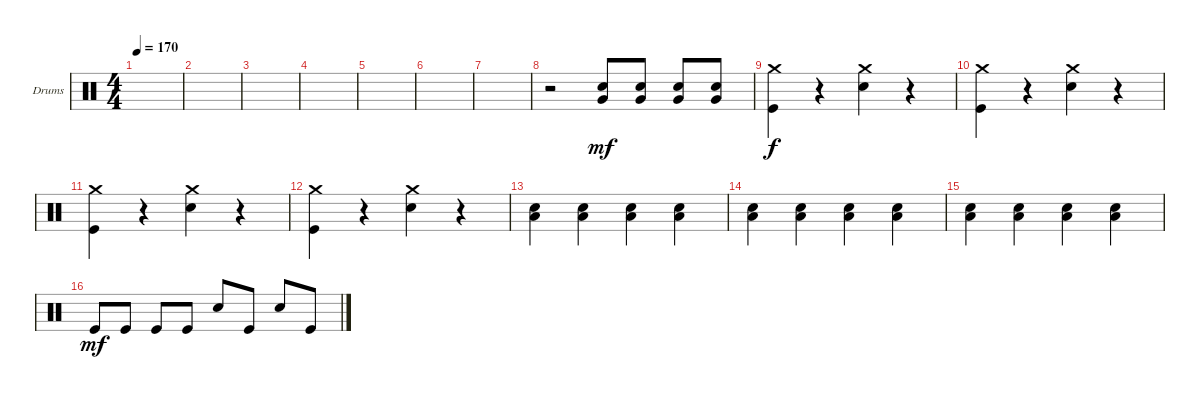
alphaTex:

\defaultSystemsLayout 4
\bracketExtendMode groupsimilarinstruments
\firstSystemTrackNameOrientation horizontal
\otherSystemsTrackNameOrientation horizontal
\track ("Drumkit" "Drums") {instrument percussion}
\staff {score}
\articulation defaults
\ts (4 4)
\tempo 170
\clef neutral
\scale
0.333333
\ks c
|
\scale
0.333333 |
\scale
0.333333 |
\scale
0.333333 |
\scale
0.333333 |
\scale
0.333333 |
\scale
0.333333 |
\scale
0.333333 r.2 ("Snare (hit) 2" "Very Low Tom (hit)").8{dy mf} ("Snare (hit) 2" "Very Low Tom (hit)").8 ("Snare (hit) 2" "Very Low Tom (hit)").8 ("Snare (hit) 2" "Very Low Tom (hit)").8 |
\scale
0.333333 ("Crash medium (hit)" "Kick (hit)").4{dy f} r.4 ("Crash medium (hit)" "Snare (hit) 2").4 r.4 |
\scale
0.333333 ("Crash medium (hit)" "Kick (hit)").4 r.4 ("Crash medium (hit)" "Snare (hit) 2").4 r.4 |
\scale
0.333333 ("Crash medium (hit)" "Kick (hit)").4 r.4 ("Crash medium (hit)" "Snare (hit) 2").4 r.4 |
\scale
0.333333 ("Crash medium (hit)" "Kick (hit)").4 r.4 ("Crash medium (hit)" "Snare (hit) 2").4 r.4 |
\scale
0.333333 ("Snare (hit) 2" "Low Tom (hit)").4 ("Snare (hit) 2" "Low Tom (hit)").4 ("Snare (hit) 2" "Low Tom (hit)").4 ("Snare (hit) 2" "Low Tom (hit)").4 |
\scale
0.333333 ("Snare (hit) 2" "Low Tom (hit)").4 ("Snare (hit) 2" "Low Tom (hit)").4 ("Snare (hit) 2" "Low Tom (hit)").4 ("Snare (hit) 2" "Low Tom (hit)").4 |
\scale
0.333333 ("Snare (hit) 2" "Low Tom (hit)").4 ("Snare (hit) 2" "Low Tom (hit)").4 ("Snare (hit) 2" "Low Tom (hit)").4 ("Snare (hit) 2" "Low Tom (hit)").4 |
\scale
0.333333 "Kick (hit)".8{dy mf} "Kick (hit)".8 "Kick (hit)".8 "Kick (hit)".8 "Snare (hit) 2".8 "Kick (hit)".8 "Snare (hit) 2".8 "Kick (hit)".8
